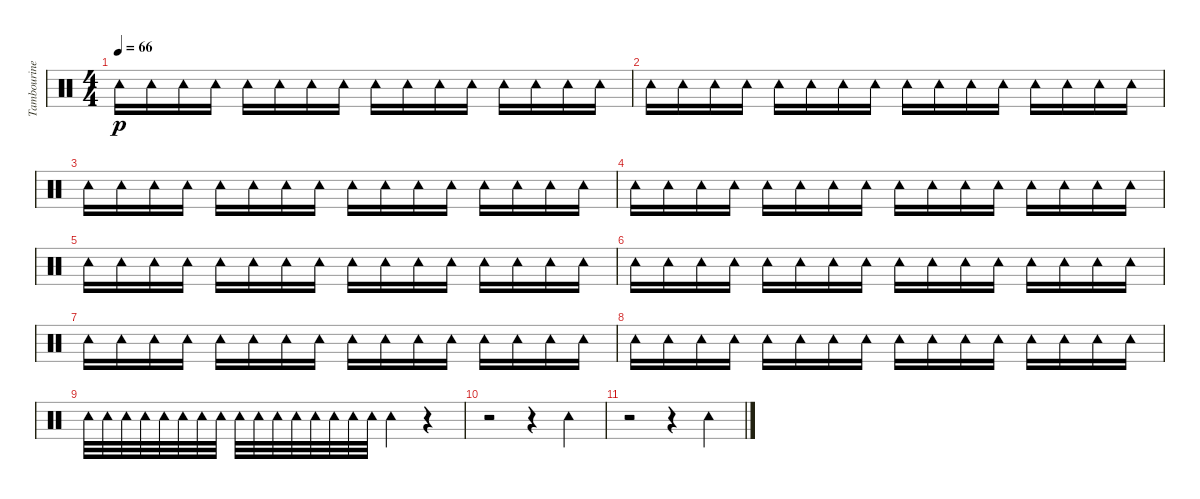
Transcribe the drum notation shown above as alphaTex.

\track ("Tambourine" "Tambourine") {instrument percussion}
\staff {score}
\articulation defaults
\ts (4 4)
\tempo 66
\clef neutral
\ks c "Tambourine (hit)".16{dy p} "Tambourine (hit)".16 "Tambourine (hit)".16 "Tambourine (hit)".16 "Tambourine (hit)".16 "Tambourine (hit)".16 "Tambourine (hit)".16 "Tambourine (hit)".16 "Tambourine (hit)".16 "Tambourine (hit)".16 "Tambourine (hit)".16 "Tambourine (hit)".16 "Tambourine (hit)".16 "Tambourine (hit)".16 "Tambourine (hit)".16 "Tambourine (hit)".16
|
"Tambourine (hit)".16 "Tambourine (hit)".16 "Tambourine (hit)".16 "Tambourine (hit)".16 "Tambourine (hit)".16 "Tambourine (hit)".16 "Tambourine (hit)".16 "Tambourine (hit)".16 "Tambourine (hit)".16 "Tambourine (hit)".16 "Tambourine (hit)".16 "Tambourine (hit)".16 "Tambourine (hit)".16 "Tambourine (hit)".16 "Tambourine (hit)".16 "Tambourine (hit)".16 |
"Tambourine (hit)".16 "Tambourine (hit)".16 "Tambourine (hit)".16 "Tambourine (hit)".16 "Tambourine (hit)".16 "Tambourine (hit)".16 "Tambourine (hit)".16 "Tambourine (hit)".16 "Tambourine (hit)".16 "Tambourine (hit)".16 "Tambourine (hit)".16 "Tambourine (hit)".16 "Tambourine (hit)".16 "Tambourine (hit)".16 "Tambourine (hit)".16 "Tambourine (hit)".16 |
"Tambourine (hit)".16 "Tambourine (hit)".16 "Tambourine (hit)".16 "Tambourine (hit)".16 "Tambourine (hit)".16 "Tambourine (hit)".16 "Tambourine (hit)".16 "Tambourine (hit)".16 "Tambourine (hit)".16 "Tambourine (hit)".16 "Tambourine (hit)".16 "Tambourine (hit)".16 "Tambourine (hit)".16 "Tambourine (hit)".16 "Tambourine (hit)".16 "Tambourine (hit)".16 |
"Tambourine (hit)".16 "Tambourine (hit)".16 "Tambourine (hit)".16 "Tambourine (hit)".16 "Tambourine (hit)".16 "Tambourine (hit)".16 "Tambourine (hit)".16 "Tambourine (hit)".16 "Tambourine (hit)".16 "Tambourine (hit)".16 "Tambourine (hit)".16 "Tambourine (hit)".16 "Tambourine (hit)".16 "Tambourine (hit)".16 "Tambourine (hit)".16 "Tambourine (hit)".16 |
"Tambourine (hit)".16 "Tambourine (hit)".16 "Tambourine (hit)".16 "Tambourine (hit)".16 "Tambourine (hit)".16 "Tambourine (hit)".16 "Tambourine (hit)".16 "Tambourine (hit)".16 "Tambourine (hit)".16 "Tambourine (hit)".16 "Tambourine (hit)".16 "Tambourine (hit)".16 "Tambourine (hit)".16 "Tambourine (hit)".16 "Tambourine (hit)".16 "Tambourine (hit)".16 |
"Tambourine (hit)".16 "Tambourine (hit)".16 "Tambourine (hit)".16 "Tambourine (hit)".16 "Tambourine (hit)".16 "Tambourine (hit)".16 "Tambourine (hit)".16 "Tambourine (hit)".16 "Tambourine (hit)".16 "Tambourine (hit)".16 "Tambourine (hit)".16 "Tambourine (hit)".16 "Tambourine (hit)".16 "Tambourine (hit)".16 "Tambourine (hit)".16 "Tambourine (hit)".16 |
"Tambourine (hit)".16 "Tambourine (hit)".16 "Tambourine (hit)".16 "Tambourine (hit)".16 "Tambourine (hit)".16 "Tambourine (hit)".16 "Tambourine (hit)".16 "Tambourine (hit)".16 "Tambourine (hit)".16 "Tambourine (hit)".16 "Tambourine (hit)".16 "Tambourine (hit)".16 "Tambourine (hit)".16 "Tambourine (hit)".16 "Tambourine (hit)".16 "Tambourine (hit)".16 |
"Tambourine (hit)".32 "Tambourine (hit)".32 "Tambourine (hit)".32 "Tambourine (hit)".32 "Tambourine (hit)".32 "Tambourine (hit)".32 "Tambourine (hit)".32 "Tambourine (hit)".32 "Tambourine (hit)".32 "Tambourine (hit)".32 "Tambourine (hit)".32 "Tambourine (hit)".32 "Tambourine (hit)".32 "Tambourine (hit)".32 "Tambourine (hit)".32 "Tambourine (hit)".32 "Tambourine (hit)".4 r.4 |
r.2 r.4 "Tambourine (hit)".4 |
r.2 r.4 "Tambourine (hit)".4
